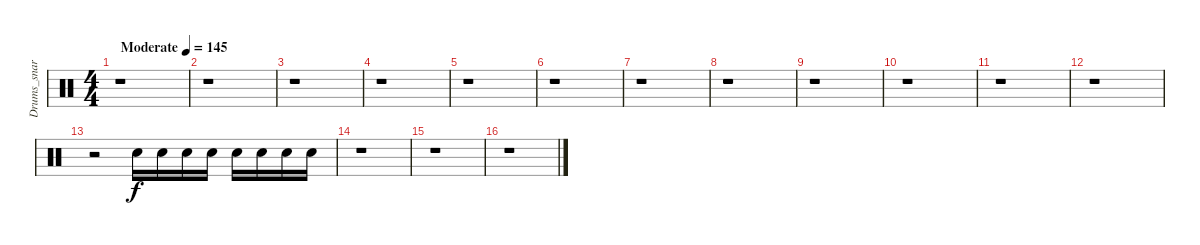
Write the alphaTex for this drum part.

\track ("Drums_snare&tom" "Drums_snar") {instrument percussion}
\staff {score}
\articulation defaults
\ts (4 4)
\tempo (145 "Moderate")
\clef neutral
\ks c
r.1{dy f} |
r.1 |
r.1 |
r.1 |
r.1 |
r.1 |
r.1 |
r.1 |
r.1 |
r.1 |
r.1 |
r.1 |
r.2 "Electric Snare (hit)".16 "Electric Snare (hit)".16 "Electric Snare (hit)".16 "Electric Snare (hit)".16 "Electric Snare (hit)".16 "Electric Snare (hit)".16 "Electric Snare (hit)".16 "Electric Snare (hit)".16 |
r.1 |
r.1 |
r.1
